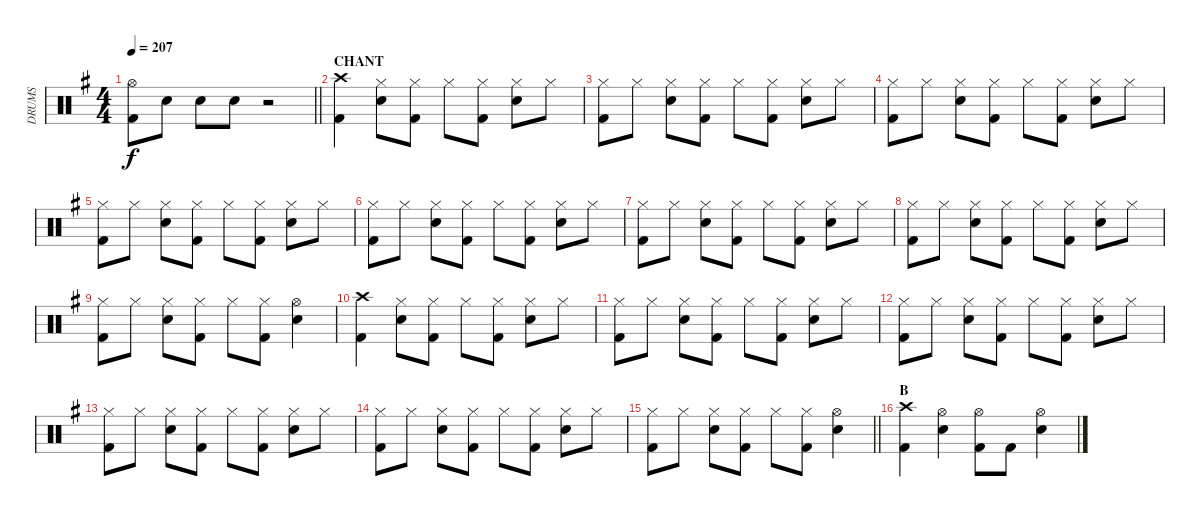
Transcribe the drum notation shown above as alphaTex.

\track ("DRUMS" "DRUMS") {instrument percussion}
\staff {score}
\articulation defaults
\ts (4 4)
\tempo 207
\clef neutral
\barLineRight lightlight
\ks eminor
("Hi-Hat (open)" "Kick (hit) 2").8{dy f} "Snare (hit) 2".8 "Snare (hit) 2".8 "Snare (hit) 2".8 r.2 |
\section ("" "CHANT")
("Crash high (hit)" "Kick (hit) 2").4 ("Hi-Hat (closed)" "Snare (hit) 2").8 ("Hi-Hat (closed)" "Kick (hit) 2").8 "Hi-Hat (closed)".8 ("Hi-Hat (closed)" "Kick (hit) 2").8 ("Hi-Hat (closed)" "Snare (hit) 2").8 "Hi-Hat (closed)".8 |
("Hi-Hat (closed)" "Kick (hit) 2").8 "Hi-Hat (closed)".8 ("Hi-Hat (closed)" "Snare (hit) 2").8 ("Hi-Hat (closed)" "Kick (hit) 2").8 "Hi-Hat (closed)".8 ("Hi-Hat (closed)" "Kick (hit) 2").8 ("Hi-Hat (closed)" "Snare (hit) 2").8 "Hi-Hat (closed)".8 |
("Hi-Hat (closed)" "Kick (hit) 2").8 "Hi-Hat (closed)".8 ("Hi-Hat (closed)" "Snare (hit) 2").8 ("Hi-Hat (closed)" "Kick (hit) 2").8 "Hi-Hat (closed)".8 ("Hi-Hat (closed)" "Kick (hit) 2").8 ("Hi-Hat (closed)" "Snare (hit) 2").8 "Hi-Hat (closed)".8 |
("Hi-Hat (closed)" "Kick (hit) 2").8 "Hi-Hat (closed)".8 ("Hi-Hat (closed)" "Snare (hit) 2").8 ("Hi-Hat (closed)" "Kick (hit) 2").8 "Hi-Hat (closed)".8 ("Hi-Hat (closed)" "Kick (hit) 2").8 ("Hi-Hat (closed)" "Snare (hit) 2").8 "Hi-Hat (closed)".8 |
("Hi-Hat (closed)" "Kick (hit) 2").8 "Hi-Hat (closed)".8 ("Hi-Hat (closed)" "Snare (hit) 2").8 ("Hi-Hat (closed)" "Kick (hit) 2").8 "Hi-Hat (closed)".8 ("Hi-Hat (closed)" "Kick (hit) 2").8 ("Hi-Hat (closed)" "Snare (hit) 2").8 "Hi-Hat (closed)".8 |
("Hi-Hat (closed)" "Kick (hit) 2").8 "Hi-Hat (closed)".8 ("Hi-Hat (closed)" "Snare (hit) 2").8 ("Hi-Hat (closed)" "Kick (hit) 2").8 "Hi-Hat (closed)".8 ("Hi-Hat (closed)" "Kick (hit) 2").8 ("Hi-Hat (closed)" "Snare (hit) 2").8 "Hi-Hat (closed)".8 |
("Hi-Hat (closed)" "Kick (hit) 2").8 "Hi-Hat (closed)".8 ("Hi-Hat (closed)" "Snare (hit) 2").8 ("Hi-Hat (closed)" "Kick (hit) 2").8 "Hi-Hat (closed)".8 ("Hi-Hat (closed)" "Kick (hit) 2").8 ("Hi-Hat (closed)" "Snare (hit) 2").8 "Hi-Hat (closed)".8 |
("Hi-Hat (closed)" "Kick (hit) 2").8 "Hi-Hat (closed)".8 ("Hi-Hat (closed)" "Snare (hit) 2").8 ("Hi-Hat (closed)" "Kick (hit) 2").8 "Hi-Hat (closed)".8 ("Hi-Hat (closed)" "Kick (hit) 2").8 ("Hi-Hat (open)" "Snare (hit) 2").4 |
("Crash high (hit)" "Kick (hit) 2").4 ("Hi-Hat (closed)" "Snare (hit) 2").8 ("Hi-Hat (closed)" "Kick (hit) 2").8 "Hi-Hat (closed)".8 ("Hi-Hat (closed)" "Kick (hit) 2").8 ("Hi-Hat (closed)" "Snare (hit) 2").8 "Hi-Hat (closed)".8 |
("Hi-Hat (closed)" "Kick (hit) 2").8 "Hi-Hat (closed)".8 ("Hi-Hat (closed)" "Snare (hit) 2").8 ("Hi-Hat (closed)" "Kick (hit) 2").8 "Hi-Hat (closed)".8 ("Hi-Hat (closed)" "Kick (hit) 2").8 ("Hi-Hat (closed)" "Snare (hit) 2").8 "Hi-Hat (closed)".8 |
("Hi-Hat (closed)" "Kick (hit) 2").8 "Hi-Hat (closed)".8 ("Hi-Hat (closed)" "Snare (hit) 2").8 ("Hi-Hat (closed)" "Kick (hit) 2").8 "Hi-Hat (closed)".8 ("Hi-Hat (closed)" "Kick (hit) 2").8 ("Hi-Hat (closed)" "Snare (hit) 2").8 "Hi-Hat (closed)".8 |
("Hi-Hat (closed)" "Kick (hit) 2").8 "Hi-Hat (closed)".8 ("Hi-Hat (closed)" "Snare (hit) 2").8 ("Hi-Hat (closed)" "Kick (hit) 2").8 "Hi-Hat (closed)".8 ("Hi-Hat (closed)" "Kick (hit) 2").8 ("Hi-Hat (closed)" "Snare (hit) 2").8 "Hi-Hat (closed)".8 |
("Hi-Hat (closed)" "Kick (hit) 2").8 "Hi-Hat (closed)".8 ("Hi-Hat (closed)" "Snare (hit) 2").8 ("Hi-Hat (closed)" "Kick (hit) 2").8 "Hi-Hat (closed)".8 ("Hi-Hat (closed)" "Kick (hit) 2").8 ("Hi-Hat (closed)" "Snare (hit) 2").8 "Hi-Hat (closed)".8 |
\barLineRight lightlight
("Hi-Hat (closed)" "Kick (hit) 2").8 "Hi-Hat (closed)".8 ("Hi-Hat (closed)" "Snare (hit) 2").8 ("Hi-Hat (closed)" "Kick (hit) 2").8 "Hi-Hat (closed)".8 ("Hi-Hat (closed)" "Kick (hit) 2").8 ("Hi-Hat (open)" "Snare (hit) 2").4 |
\section ("" "B")
("Crash high (hit)" "Kick (hit) 2").4 ("Hi-Hat (open)" "Snare (hit) 2").4 ("Hi-Hat (open)" "Kick (hit) 2").8 "Kick (hit) 2".8 ("Hi-Hat (open)" "Snare (hit) 2").4
